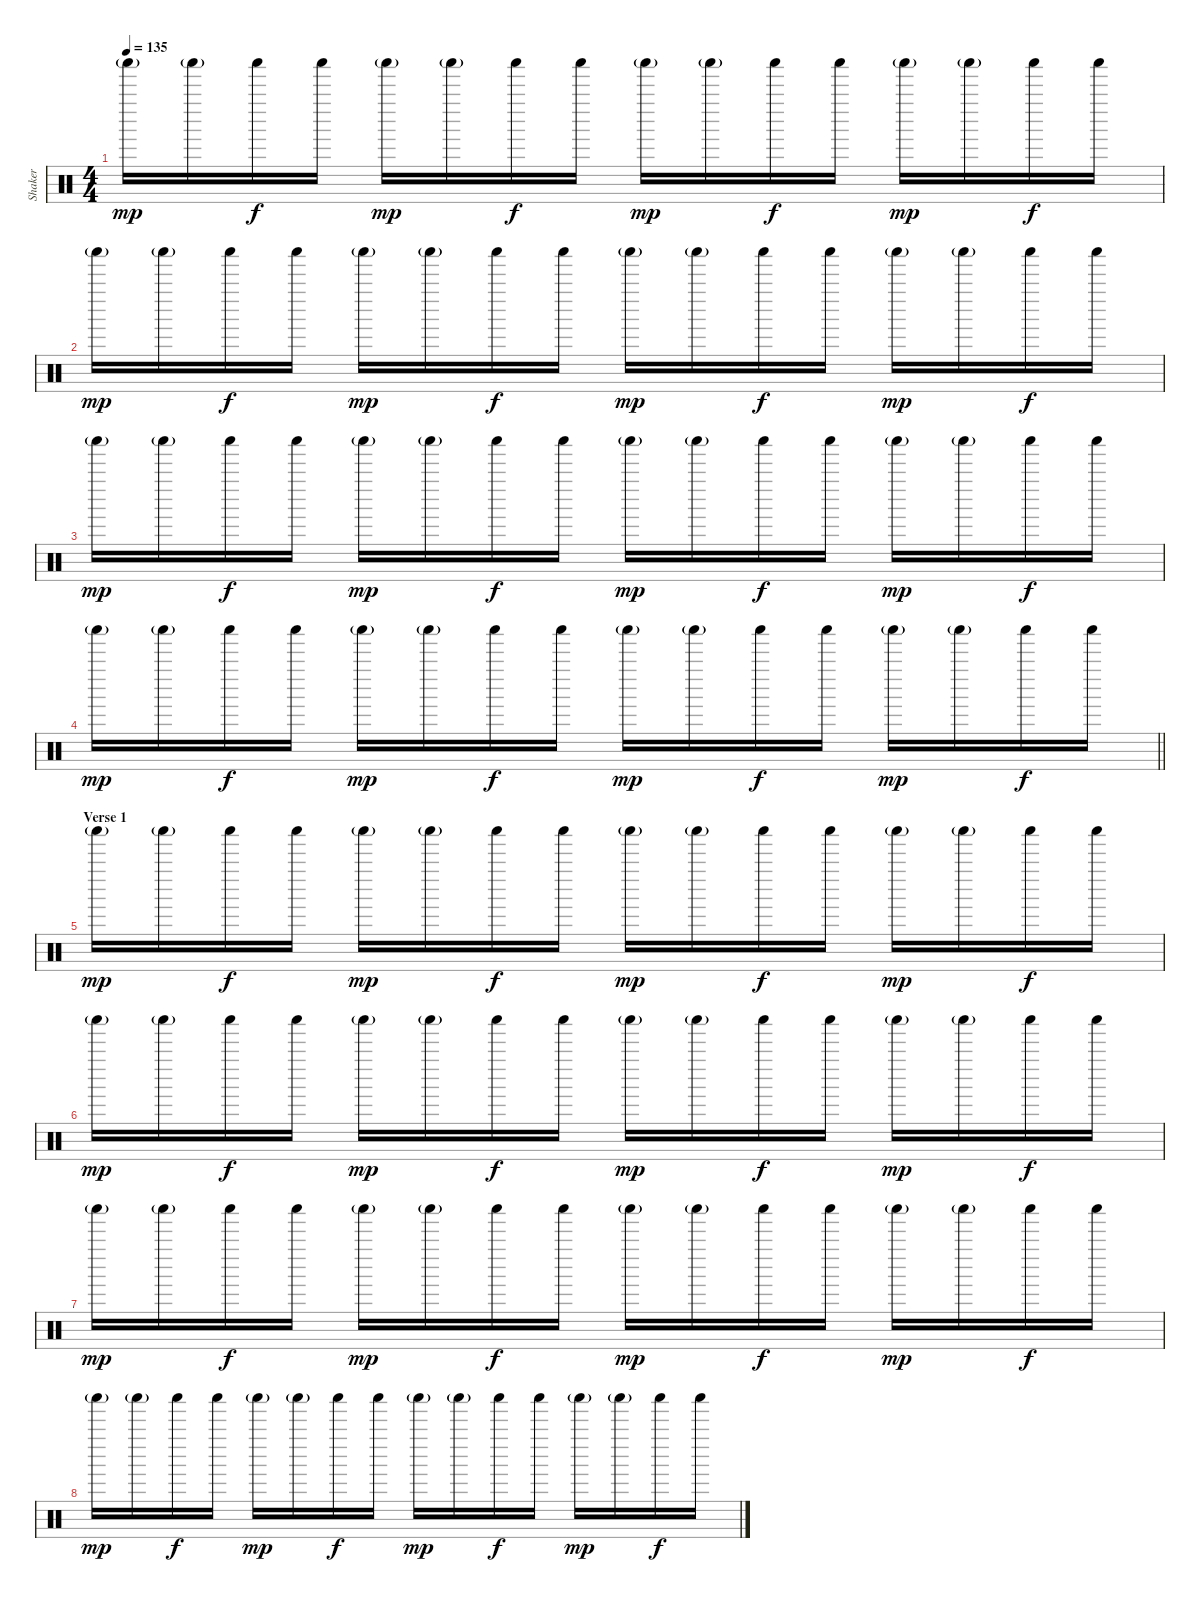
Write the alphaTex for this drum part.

\track ("Shaker" "Shaker") {instrument percussion}
\staff {score}
\articulation defaults
\ts (4 4)
\tempo 135
\clef neutral
\ks c "Shaker (hit)"{g}.16{dy mp} "Shaker (hit)"{g}.16 "Shaker (hit)".16{dy f} "Shaker (hit)".16 "Shaker (hit)"{g}.16{dy mp} "Shaker (hit)"{g}.16 "Shaker (hit)".16{dy f} "Shaker (hit)".16 "Shaker (hit)"{g}.16{dy mp} "Shaker (hit)"{g}.16 "Shaker (hit)".16{dy f} "Shaker (hit)".16 "Shaker (hit)"{g}.16{dy mp} "Shaker (hit)"{g}.16 "Shaker (hit)".16{dy f} "Shaker (hit)".16
|
"Shaker (hit)"{g}.16{dy mp} "Shaker (hit)"{g}.16 "Shaker (hit)".16{dy f} "Shaker (hit)".16 "Shaker (hit)"{g}.16{dy mp} "Shaker (hit)"{g}.16 "Shaker (hit)".16{dy f} "Shaker (hit)".16 "Shaker (hit)"{g}.16{dy mp} "Shaker (hit)"{g}.16 "Shaker (hit)".16{dy f} "Shaker (hit)".16 "Shaker (hit)"{g}.16{dy mp} "Shaker (hit)"{g}.16 "Shaker (hit)".16{dy f} "Shaker (hit)".16 |
"Shaker (hit)"{g}.16{dy mp} "Shaker (hit)"{g}.16 "Shaker (hit)".16{dy f} "Shaker (hit)".16 "Shaker (hit)"{g}.16{dy mp} "Shaker (hit)"{g}.16 "Shaker (hit)".16{dy f} "Shaker (hit)".16 "Shaker (hit)"{g}.16{dy mp} "Shaker (hit)"{g}.16 "Shaker (hit)".16{dy f} "Shaker (hit)".16 "Shaker (hit)"{g}.16{dy mp} "Shaker (hit)"{g}.16 "Shaker (hit)".16{dy f} "Shaker (hit)".16 |
\barLineRight lightlight "Shaker (hit)"{g}.16{dy mp} "Shaker (hit)"{g}.16 "Shaker (hit)".16{dy f} "Shaker (hit)".16 "Shaker (hit)"{g}.16{dy mp} "Shaker (hit)"{g}.16 "Shaker (hit)".16{dy f} "Shaker (hit)".16 "Shaker (hit)"{g}.16{dy mp} "Shaker (hit)"{g}.16 "Shaker (hit)".16{dy f} "Shaker (hit)".16 "Shaker (hit)"{g}.16{dy mp} "Shaker (hit)"{g}.16 "Shaker (hit)".16{dy f} "Shaker (hit)".16
|
\section ("" "Verse 1")
"Shaker (hit)"{g}.16{dy mp} "Shaker (hit)"{g}.16 "Shaker (hit)".16{dy f} "Shaker (hit)".16 "Shaker (hit)"{g}.16{dy mp} "Shaker (hit)"{g}.16 "Shaker (hit)".16{dy f} "Shaker (hit)".16 "Shaker (hit)"{g}.16{dy mp} "Shaker (hit)"{g}.16 "Shaker (hit)".16{dy f} "Shaker (hit)".16 "Shaker (hit)"{g}.16{dy mp} "Shaker (hit)"{g}.16 "Shaker (hit)".16{dy f} "Shaker (hit)".16 |
"Shaker (hit)"{g}.16{dy mp} "Shaker (hit)"{g}.16 "Shaker (hit)".16{dy f} "Shaker (hit)".16 "Shaker (hit)"{g}.16{dy mp} "Shaker (hit)"{g}.16 "Shaker (hit)".16{dy f} "Shaker (hit)".16 "Shaker (hit)"{g}.16{dy mp} "Shaker (hit)"{g}.16 "Shaker (hit)".16{dy f} "Shaker (hit)".16 "Shaker (hit)"{g}.16{dy mp} "Shaker (hit)"{g}.16 "Shaker (hit)".16{dy f} "Shaker (hit)".16 |
"Shaker (hit)"{g}.16{dy mp} "Shaker (hit)"{g}.16 "Shaker (hit)".16{dy f} "Shaker (hit)".16 "Shaker (hit)"{g}.16{dy mp} "Shaker (hit)"{g}.16 "Shaker (hit)".16{dy f} "Shaker (hit)".16 "Shaker (hit)"{g}.16{dy mp} "Shaker (hit)"{g}.16 "Shaker (hit)".16{dy f} "Shaker (hit)".16 "Shaker (hit)"{g}.16{dy mp} "Shaker (hit)"{g}.16 "Shaker (hit)".16{dy f} "Shaker (hit)".16 |
"Shaker (hit)"{g}.16{dy mp} "Shaker (hit)"{g}.16 "Shaker (hit)".16{dy f} "Shaker (hit)".16 "Shaker (hit)"{g}.16{dy mp} "Shaker (hit)"{g}.16 "Shaker (hit)".16{dy f} "Shaker (hit)".16 "Shaker (hit)"{g}.16{dy mp} "Shaker (hit)"{g}.16 "Shaker (hit)".16{dy f} "Shaker (hit)".16 "Shaker (hit)"{g}.16{dy mp} "Shaker (hit)"{g}.16 "Shaker (hit)".16{dy f} "Shaker (hit)".16
